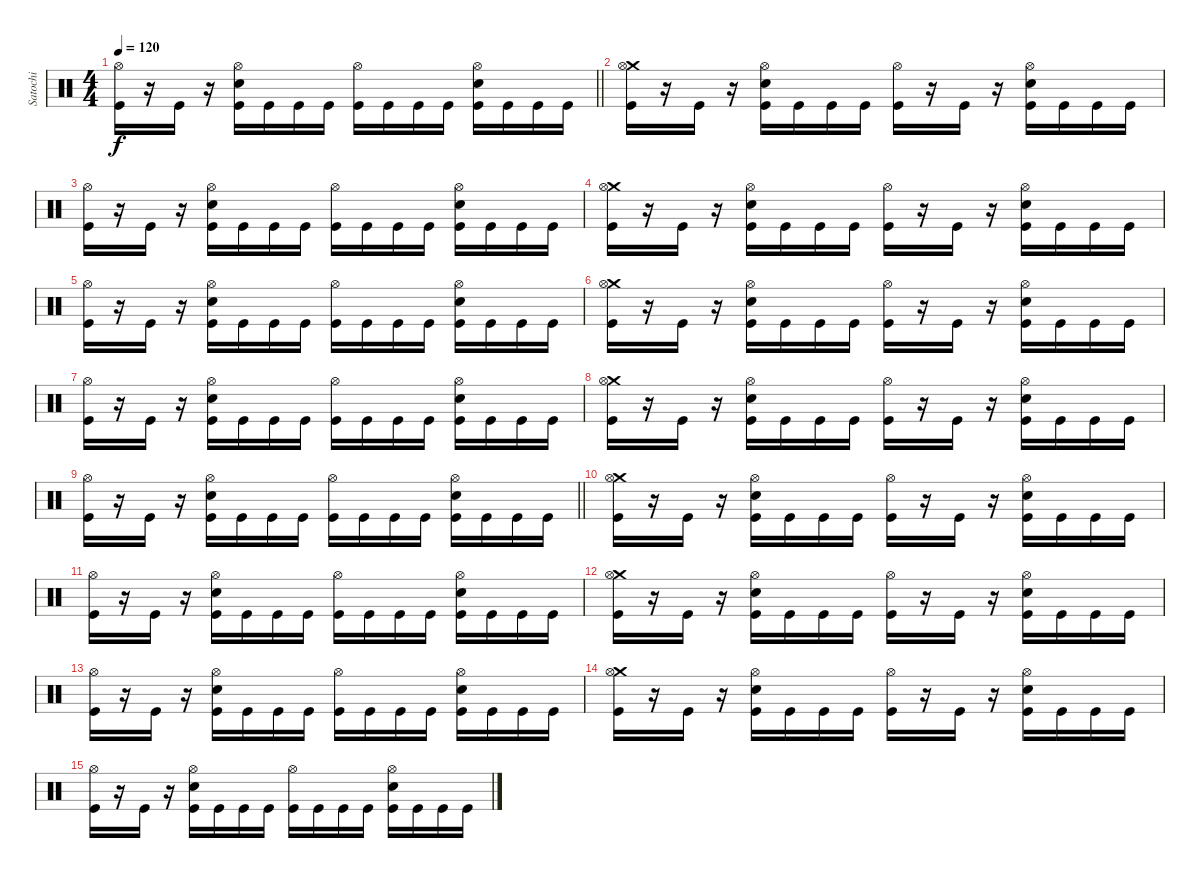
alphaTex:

\track ("Satochi" "Satochi") {instrument percussion}
\staff {score}
\articulation defaults
\ts (4 4)
\tempo 120
\clef neutral
\barLineRight lightlight
\ks c
("Hi-Hat (open)" "Kick (hit)").16{dy f} r.16 "Kick (hit)".16 r.16 ("Hi-Hat (open)" "Electric Snare (hit)" "Kick (hit)").16 "Kick (hit)".16 "Kick (hit)".16 "Kick (hit)".16 ("Hi-Hat (open)" "Kick (hit)").16 "Kick (hit)".16 "Kick (hit)".16 "Kick (hit)".16 ("Hi-Hat (open)" "Electric Snare (hit)" "Kick (hit)").16 "Kick (hit)".16 "Kick (hit)".16 "Kick (hit)".16 |
("Crash medium (hit)" "Hi-Hat (open)" "Kick (hit)").16 r.16 "Kick (hit)".16 r.16 ("Hi-Hat (open)" "Electric Snare (hit)" "Kick (hit)").16 "Kick (hit)".16 "Kick (hit)".16 "Kick (hit)".16 ("Hi-Hat (open)" "Kick (hit)").16 r.16 "Kick (hit)".16 r.16 ("Hi-Hat (open)" "Electric Snare (hit)" "Kick (hit)").16 "Kick (hit)".16 "Kick (hit)".16 "Kick (hit)".16 |
("Hi-Hat (open)" "Kick (hit)").16 r.16 "Kick (hit)".16 r.16 ("Hi-Hat (open)" "Electric Snare (hit)" "Kick (hit)").16 "Kick (hit)".16 "Kick (hit)".16 "Kick (hit)".16 ("Hi-Hat (open)" "Kick (hit)").16 "Kick (hit)".16 "Kick (hit)".16 "Kick (hit)".16 ("Hi-Hat (open)" "Electric Snare (hit)" "Kick (hit)").16 "Kick (hit)".16 "Kick (hit)".16 "Kick (hit)".16 |
("Crash medium (hit)" "Hi-Hat (open)" "Kick (hit)").16 r.16 "Kick (hit)".16 r.16 ("Hi-Hat (open)" "Electric Snare (hit)" "Kick (hit)").16 "Kick (hit)".16 "Kick (hit)".16 "Kick (hit)".16 ("Hi-Hat (open)" "Kick (hit)").16 r.16 "Kick (hit)".16 r.16 ("Hi-Hat (open)" "Electric Snare (hit)" "Kick (hit)").16 "Kick (hit)".16 "Kick (hit)".16 "Kick (hit)".16 |
("Hi-Hat (open)" "Kick (hit)").16 r.16 "Kick (hit)".16 r.16 ("Hi-Hat (open)" "Electric Snare (hit)" "Kick (hit)").16 "Kick (hit)".16 "Kick (hit)".16 "Kick (hit)".16 ("Hi-Hat (open)" "Kick (hit)").16 "Kick (hit)".16 "Kick (hit)".16 "Kick (hit)".16 ("Hi-Hat (open)" "Electric Snare (hit)" "Kick (hit)").16 "Kick (hit)".16 "Kick (hit)".16 "Kick (hit)".16 |
("Crash medium (hit)" "Hi-Hat (open)" "Kick (hit)").16 r.16 "Kick (hit)".16 r.16 ("Hi-Hat (open)" "Electric Snare (hit)" "Kick (hit)").16 "Kick (hit)".16 "Kick (hit)".16 "Kick (hit)".16 ("Hi-Hat (open)" "Kick (hit)").16 r.16 "Kick (hit)".16 r.16 ("Hi-Hat (open)" "Electric Snare (hit)" "Kick (hit)").16 "Kick (hit)".16 "Kick (hit)".16 "Kick (hit)".16 |
("Hi-Hat (open)" "Kick (hit)").16 r.16 "Kick (hit)".16 r.16 ("Hi-Hat (open)" "Electric Snare (hit)" "Kick (hit)").16 "Kick (hit)".16 "Kick (hit)".16 "Kick (hit)".16 ("Hi-Hat (open)" "Kick (hit)").16 "Kick (hit)".16 "Kick (hit)".16 "Kick (hit)".16 ("Hi-Hat (open)" "Electric Snare (hit)" "Kick (hit)").16 "Kick (hit)".16 "Kick (hit)".16 "Kick (hit)".16 |
("Crash medium (hit)" "Hi-Hat (open)" "Kick (hit)").16 r.16 "Kick (hit)".16 r.16 ("Hi-Hat (open)" "Electric Snare (hit)" "Kick (hit)").16 "Kick (hit)".16 "Kick (hit)".16 "Kick (hit)".16 ("Hi-Hat (open)" "Kick (hit)").16 r.16 "Kick (hit)".16 r.16 ("Hi-Hat (open)" "Electric Snare (hit)" "Kick (hit)").16 "Kick (hit)".16 "Kick (hit)".16 "Kick (hit)".16 |
\barLineRight lightlight
("Hi-Hat (open)" "Kick (hit)").16 r.16 "Kick (hit)".16 r.16 ("Hi-Hat (open)" "Electric Snare (hit)" "Kick (hit)").16 "Kick (hit)".16 "Kick (hit)".16 "Kick (hit)".16 ("Hi-Hat (open)" "Kick (hit)").16 "Kick (hit)".16 "Kick (hit)".16 "Kick (hit)".16 ("Hi-Hat (open)" "Electric Snare (hit)" "Kick (hit)").16 "Kick (hit)".16 "Kick (hit)".16 "Kick (hit)".16 |
("Crash medium (hit)" "Hi-Hat (open)" "Kick (hit)").16 r.16 "Kick (hit)".16 r.16 ("Hi-Hat (open)" "Electric Snare (hit)" "Kick (hit)").16 "Kick (hit)".16 "Kick (hit)".16 "Kick (hit)".16 ("Hi-Hat (open)" "Kick (hit)").16 r.16 "Kick (hit)".16 r.16 ("Hi-Hat (open)" "Electric Snare (hit)" "Kick (hit)").16 "Kick (hit)".16 "Kick (hit)".16 "Kick (hit)".16 |
("Hi-Hat (open)" "Kick (hit)").16 r.16 "Kick (hit)".16 r.16 ("Hi-Hat (open)" "Electric Snare (hit)" "Kick (hit)").16 "Kick (hit)".16 "Kick (hit)".16 "Kick (hit)".16 ("Hi-Hat (open)" "Kick (hit)").16 "Kick (hit)".16 "Kick (hit)".16 "Kick (hit)".16 ("Hi-Hat (open)" "Electric Snare (hit)" "Kick (hit)").16 "Kick (hit)".16 "Kick (hit)".16 "Kick (hit)".16 |
("Crash medium (hit)" "Hi-Hat (open)" "Kick (hit)").16 r.16 "Kick (hit)".16 r.16 ("Hi-Hat (open)" "Electric Snare (hit)" "Kick (hit)").16 "Kick (hit)".16 "Kick (hit)".16 "Kick (hit)".16 ("Hi-Hat (open)" "Kick (hit)").16 r.16 "Kick (hit)".16 r.16 ("Hi-Hat (open)" "Electric Snare (hit)" "Kick (hit)").16 "Kick (hit)".16 "Kick (hit)".16 "Kick (hit)".16 |
("Hi-Hat (open)" "Kick (hit)").16 r.16 "Kick (hit)".16 r.16 ("Hi-Hat (open)" "Electric Snare (hit)" "Kick (hit)").16 "Kick (hit)".16 "Kick (hit)".16 "Kick (hit)".16 ("Hi-Hat (open)" "Kick (hit)").16 "Kick (hit)".16 "Kick (hit)".16 "Kick (hit)".16 ("Hi-Hat (open)" "Electric Snare (hit)" "Kick (hit)").16 "Kick (hit)".16 "Kick (hit)".16 "Kick (hit)".16 |
("Crash medium (hit)" "Hi-Hat (open)" "Kick (hit)").16 r.16 "Kick (hit)".16 r.16 ("Hi-Hat (open)" "Electric Snare (hit)" "Kick (hit)").16 "Kick (hit)".16 "Kick (hit)".16 "Kick (hit)".16 ("Hi-Hat (open)" "Kick (hit)").16 r.16 "Kick (hit)".16 r.16 ("Hi-Hat (open)" "Electric Snare (hit)" "Kick (hit)").16 "Kick (hit)".16 "Kick (hit)".16 "Kick (hit)".16 |
("Hi-Hat (open)" "Kick (hit)").16 r.16 "Kick (hit)".16 r.16 ("Hi-Hat (open)" "Electric Snare (hit)" "Kick (hit)").16 "Kick (hit)".16 "Kick (hit)".16 "Kick (hit)".16 ("Hi-Hat (open)" "Kick (hit)").16 "Kick (hit)".16 "Kick (hit)".16 "Kick (hit)".16 ("Hi-Hat (open)" "Electric Snare (hit)" "Kick (hit)").16 "Kick (hit)".16 "Kick (hit)".16 "Kick (hit)".16
